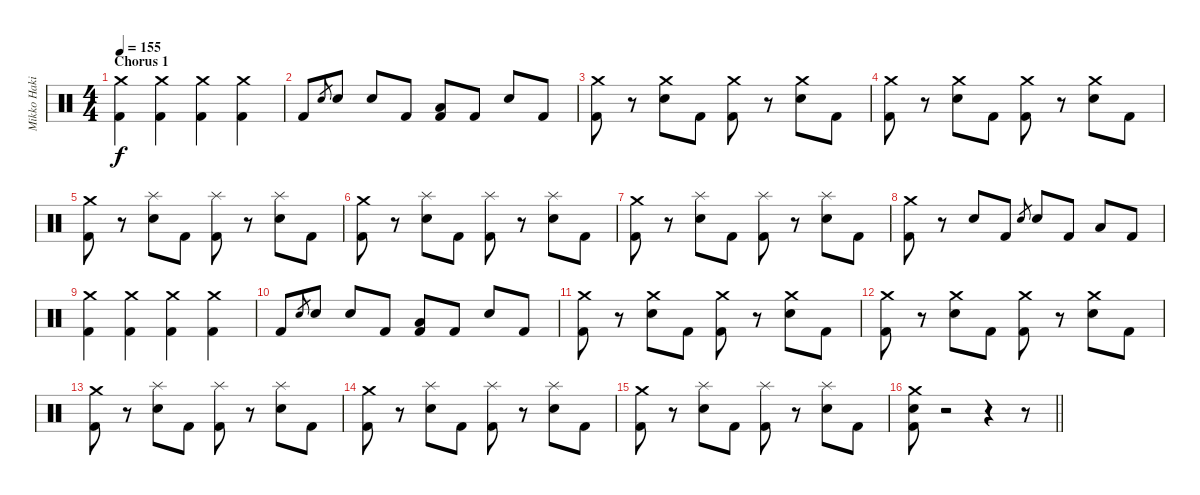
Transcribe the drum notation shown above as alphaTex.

\track ("Mikko Hakila - Drums" "Mikko Haki") {instrument percussion}
\staff {score}
\articulation defaults
\ts (4 4)
\section ("" "Chorus 1")
\tempo 155
\clef neutral
\ks c
("Crash medium (hit)" "Kick (hit) 2").4{dy f} ("Crash medium (hit)" "Kick (hit) 2").4 ("Crash medium (hit)" "Kick (hit) 2").4 ("Crash medium (hit)" "Kick (hit) 2").4 |
"Kick (hit) 2".8 "Electric Snare (hit)".8{gr} "Electric Snare (hit)".8 "Electric Snare (hit)".8 "Kick (hit) 2".8 ("Low Floor Tom (hit)" "Kick (hit) 2").8 "Kick (hit) 2".8 "Electric Snare (hit)".8 "Kick (hit) 2".8 |
("Crash medium (hit)" "Kick (hit) 2").8 r.8 ("Crash medium (hit)" "Electric Snare (hit)").8 "Kick (hit) 2".8 ("Crash medium (hit)" "Kick (hit) 2").8 r.8 ("Crash medium (hit)" "Electric Snare (hit)").8 "Kick (hit) 2".8 |
("Crash medium (hit)" "Kick (hit) 2").8 r.8 ("Crash medium (hit)" "Electric Snare (hit)").8 "Kick (hit) 2".8 ("Crash medium (hit)" "Kick (hit) 2").8 r.8 ("Crash medium (hit)" "Electric Snare (hit)").8 "Kick (hit) 2".8 |
("Crash medium (hit)" "Kick (hit) 2").8 r.8 ("Splash (hit)" "Electric Snare (hit)").8 "Kick (hit) 2".8 ("Splash (hit)" "Kick (hit) 2").8 r.8 ("Splash (hit)" "Electric Snare (hit)").8 "Kick (hit) 2".8 |
("Crash medium (hit)" "Kick (hit) 2").8 r.8 ("Splash (hit)" "Electric Snare (hit)").8 "Kick (hit) 2".8 ("Splash (hit)" "Kick (hit) 2").8 r.8 ("Splash (hit)" "Electric Snare (hit)").8 "Kick (hit) 2".8 |
("Crash medium (hit)" "Kick (hit) 2").8 r.8 ("Splash (hit)" "Electric Snare (hit)").8 "Kick (hit) 2".8 ("Splash (hit)" "Kick (hit) 2").8 r.8 ("Splash (hit)" "Electric Snare (hit)").8 "Kick (hit) 2".8 |
("Crash medium (hit)" "Kick (hit) 2").8 r.8 "Electric Snare (hit)".8 "Kick (hit) 2".8 "Electric Snare (hit)".8{gr} "Electric Snare (hit)".8 "Kick (hit) 2".8 "Low Floor Tom (hit)".8 "Kick (hit) 2".8 |
("Crash medium (hit)" "Kick (hit) 2").4 ("Crash medium (hit)" "Kick (hit) 2").4 ("Crash medium (hit)" "Kick (hit) 2").4 ("Crash medium (hit)" "Kick (hit) 2").4 |
"Kick (hit) 2".8 "Electric Snare (hit)".8{gr} "Electric Snare (hit)".8 "Electric Snare (hit)".8 "Kick (hit) 2".8 ("Low Floor Tom (hit)" "Kick (hit) 2").8 "Kick (hit) 2".8 "Electric Snare (hit)".8 "Kick (hit) 2".8 |
("Crash medium (hit)" "Kick (hit) 2").8 r.8 ("Crash medium (hit)" "Electric Snare (hit)").8 "Kick (hit) 2".8 ("Crash medium (hit)" "Kick (hit) 2").8 r.8 ("Crash medium (hit)" "Electric Snare (hit)").8 "Kick (hit) 2".8 |
("Crash medium (hit)" "Kick (hit) 2").8 r.8 ("Crash medium (hit)" "Electric Snare (hit)").8 "Kick (hit) 2".8 ("Crash medium (hit)" "Kick (hit) 2").8 r.8 ("Crash medium (hit)" "Electric Snare (hit)").8 "Kick (hit) 2".8 |
("Crash medium (hit)" "Kick (hit) 2").8 r.8 ("Splash (hit)" "Electric Snare (hit)").8 "Kick (hit) 2".8 ("Splash (hit)" "Kick (hit) 2").8 r.8 ("Splash (hit)" "Electric Snare (hit)").8 "Kick (hit) 2".8 |
("Crash medium (hit)" "Kick (hit) 2").8 r.8 ("Splash (hit)" "Electric Snare (hit)").8 "Kick (hit) 2".8 ("Splash (hit)" "Kick (hit) 2").8 r.8 ("Splash (hit)" "Electric Snare (hit)").8 "Kick (hit) 2".8 |
("Crash medium (hit)" "Kick (hit) 2").8 r.8 ("Splash (hit)" "Electric Snare (hit)").8 "Kick (hit) 2".8 ("Splash (hit)" "Kick (hit) 2").8 r.8 ("Splash (hit)" "Electric Snare (hit)").8 "Kick (hit) 2".8 |
\barLineRight lightlight
("Crash medium (hit)" "Electric Snare (hit)" "Kick (hit) 2").8 r.2 r.4 r.8
